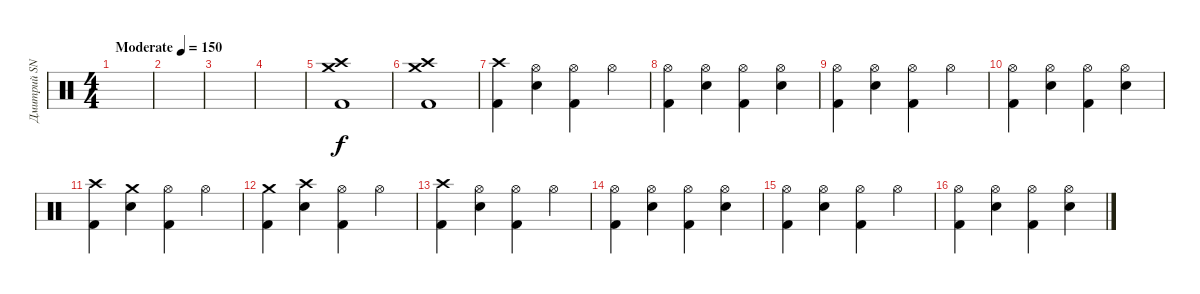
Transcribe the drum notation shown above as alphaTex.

\track ("Дмитрий SNAKE Хакимов" "Дмитрий SN") {instrument percussion}
\staff {score}
\articulation defaults
\ts (4 4)
\tempo (150 "Moderate")
\clef neutral
\ks c
|
|
|
|
("Crash high (hit)" "Crash medium (hit)" "Kick (hit) 2").1 |
("Crash high (hit)" "Crash medium (hit)" "Kick (hit) 2").1 |
("Crash high (hit)" "Kick (hit) 2").4 ("Hi-Hat (open)" "Snare (hit) 2").4 ("Hi-Hat (open)" "Kick (hit) 2").4 "Hi-Hat (open)".4 |
("Hi-Hat (open)" "Kick (hit) 2").4 ("Hi-Hat (open)" "Snare (hit) 2").4 ("Hi-Hat (open)" "Kick (hit) 2").4 ("Hi-Hat (open)" "Snare (hit) 2").4 |
("Hi-Hat (open)" "Kick (hit) 2").4 ("Hi-Hat (open)" "Snare (hit) 2").4 ("Hi-Hat (open)" "Kick (hit) 2").4 "Hi-Hat (open)".4 |
("Hi-Hat (open)" "Kick (hit) 2").4 ("Hi-Hat (open)" "Snare (hit) 2").4 ("Hi-Hat (open)" "Kick (hit) 2").4 ("Hi-Hat (open)" "Snare (hit) 2").4 |
("Crash high (hit)" "Kick (hit) 2").4 ("Crash medium (hit)" "Snare (hit) 2").4 ("Hi-Hat (open)" "Kick (hit) 2").4 "Hi-Hat (open)".4 |
("Crash medium (hit)" "Kick (hit) 2").4 ("Crash high (hit)" "Snare (hit) 2").4 ("Hi-Hat (open)" "Kick (hit) 2").4 "Hi-Hat (open)".4 |
("Crash high (hit)" "Kick (hit) 2").4 ("Hi-Hat (open)" "Snare (hit) 2").4 ("Hi-Hat (open)" "Kick (hit) 2").4 "Hi-Hat (open)".4 |
("Hi-Hat (open)" "Kick (hit) 2").4 ("Hi-Hat (open)" "Snare (hit) 2").4 ("Hi-Hat (open)" "Kick (hit) 2").4 ("Hi-Hat (open)" "Snare (hit) 2").4 |
("Hi-Hat (open)" "Kick (hit) 2").4 ("Hi-Hat (open)" "Snare (hit) 2").4 ("Hi-Hat (open)" "Kick (hit) 2").4 "Hi-Hat (open)".4 |
("Hi-Hat (open)" "Kick (hit) 2").4 ("Hi-Hat (open)" "Snare (hit) 2").4 ("Hi-Hat (open)" "Kick (hit) 2").4 ("Hi-Hat (open)" "Snare (hit) 2").4
